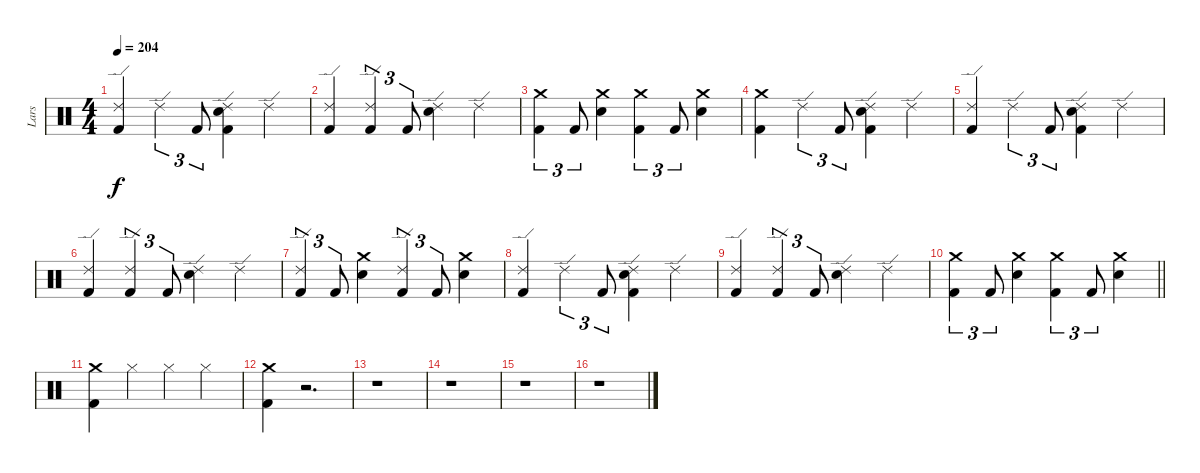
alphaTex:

\track ("Lars" "Lars") {instrument percussion}
\staff {score}
\articulation defaults
\ts (4 4)
\tempo 204
\clef neutral
\ks c
("Ride (edge) 2" "Kick (hit) 2").4{dy f} "Ride (edge) 2".4{tu (3 2)} "Kick (hit) 2".8{tu (3 2)} ("Ride (edge) 2" "Snare (hit) 2" "Kick (hit) 2").4 "Ride (edge) 2".4 |
("Kick (hit) 2" "Ride (edge) 2").4 ("Ride (edge) 2" "Kick (hit) 2").4{tu (3 2)} "Kick (hit) 2".8{tu (3 2)} ("Snare (hit) 2" "Ride (edge) 2").4 "Ride (edge) 2".4 |
("Kick (hit) 2" "Crash medium (hit)").4{tu (3 2)} "Kick (hit) 2".8{tu (3 2)} ("Snare (hit) 2" "Crash medium (hit)").4 ("Kick (hit) 2" "Crash medium (hit)").4{tu (3 2)} "Kick (hit) 2".8{tu (3 2)} ("Snare (hit) 2" "Crash medium (hit)").4 |
("Kick (hit) 2" "Crash medium (hit)").4 "Ride (edge) 2".4{tu (3 2)} "Kick (hit) 2".8{tu (3 2)} ("Kick (hit) 2" "Snare (hit) 2" "Ride (edge) 2").4 "Ride (edge) 2".4 |
("Kick (hit) 2" "Ride (edge) 2").4 "Ride (edge) 2".4{tu (3 2)} "Kick (hit) 2".8{tu (3 2)} ("Kick (hit) 2" "Snare (hit) 2" "Ride (edge) 2").4 "Ride (edge) 2".4 |
("Kick (hit) 2" "Ride (edge) 2").4 ("Kick (hit) 2" "Ride (edge) 2").4{tu (3 2)} "Kick (hit) 2".8{tu (3 2)} ("Ride (edge) 2" "Snare (hit) 2").4 "Ride (edge) 2".4 |
("Ride (edge) 2" "Kick (hit) 2").4{tu (3 2)} "Kick (hit) 2".8{tu (3 2)} ("Snare (hit) 2" "Crash medium (hit)").4 ("Ride (edge) 2" "Kick (hit) 2").4{tu (3 2)} "Kick (hit) 2".8{tu (3 2)} ("Snare (hit) 2" "Crash medium (hit)").4 |
("Ride (edge) 2" "Kick (hit) 2").4 "Ride (edge) 2".4{tu (3 2)} "Kick (hit) 2".8{tu (3 2)} ("Ride (edge) 2" "Snare (hit) 2" "Kick (hit) 2").4 "Ride (edge) 2".4 |
("Kick (hit) 2" "Ride (edge) 2").4 ("Ride (edge) 2" "Kick (hit) 2").4{tu (3 2)} "Kick (hit) 2".8{tu (3 2)} ("Snare (hit) 2" "Ride (edge) 2").4 "Ride (edge) 2".4 |
\barLineRight lightlight
("Kick (hit) 2" "Crash medium (hit)").4{tu (3 2)} "Kick (hit) 2".8{tu (3 2)} ("Snare (hit) 2" "Crash medium (hit)").4 ("Kick (hit) 2" "Crash medium (hit)").4{tu (3 2)} "Kick (hit) 2".8{tu (3 2)} ("Snare (hit) 2" "Crash medium (hit)").4 |
("Kick (hit) 2" "Crash medium (hit)").4 "Hi-Hat (closed)".4 "Hi-Hat (closed)".4 "Hi-Hat (closed)".4 |
("Kick (hit) 2" "Crash medium (hit)").4 r.2{d} |
r.1 |
r.1 |
r.1 |
r.1
